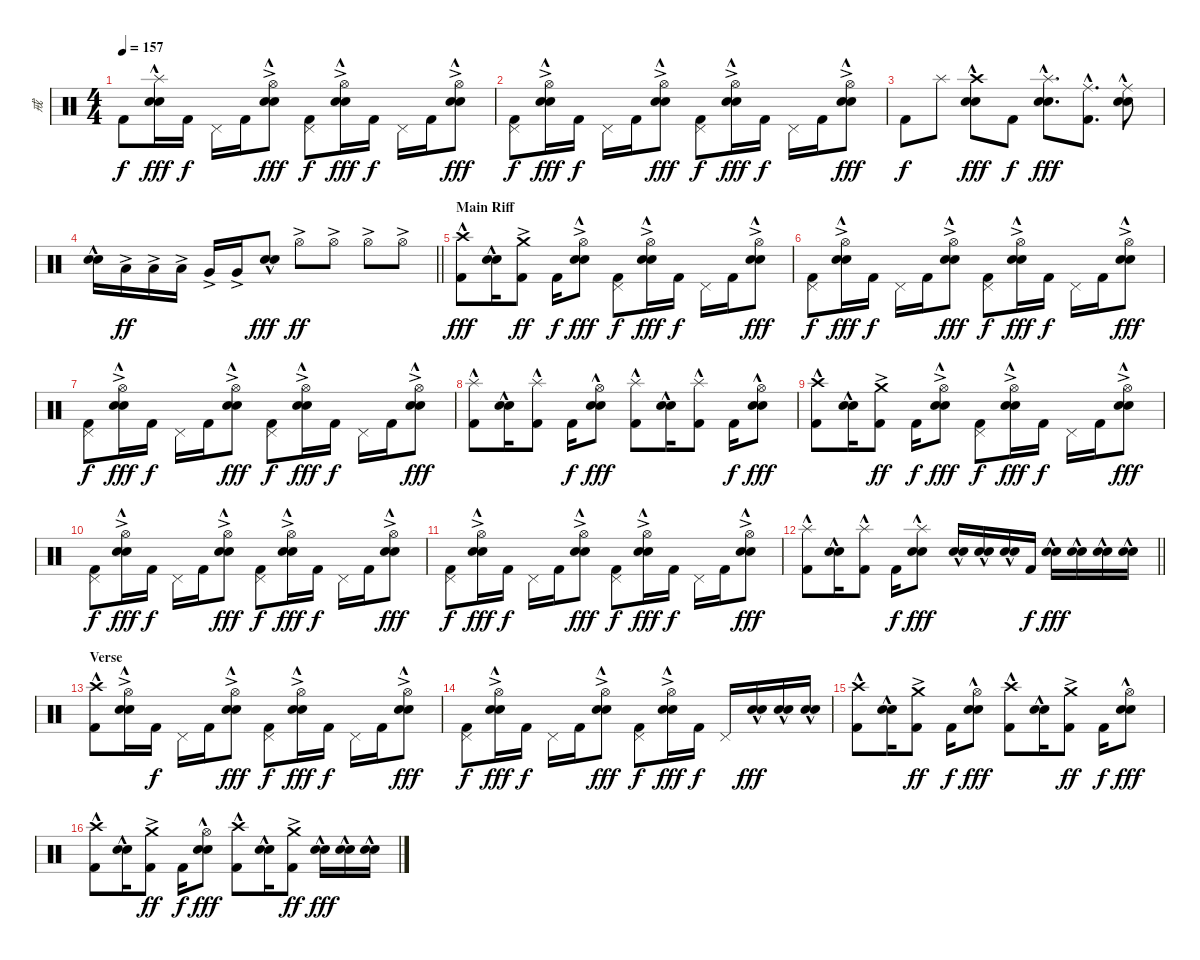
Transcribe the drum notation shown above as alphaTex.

\track ("戒" "戒") {instrument percussion}
\staff {score}
\articulation defaults
\ts (4 4)
\tempo 157
\clef neutral
\ks c "Kick (hit) 2".8{dy f}
("Splash (hit)"{hac} "Electric Snare (hit)"{hac} "Snare (hit) 2").16{dy fff} "Kick (hit) 2".16{dy f} "Pedal Hi-Hat (hit)".16 "Kick (hit) 2".16 ("Hi-Hat (open)"{ac} "Electric Snare (hit)"{hac} "Snare (hit) 2").8{dy fff} ("Pedal Hi-Hat (hit)" "Kick (hit) 2").8{dy f} ("Hi-Hat (open)"{ac} "Electric Snare (hit)"{hac} "Snare (hit) 2").16{dy fff} "Kick (hit) 2".16{dy f} "Pedal Hi-Hat (hit)".16 "Kick (hit) 2".16 ("Hi-Hat (open)"{ac} "Electric Snare (hit)"{hac} "Snare (hit) 2").8{dy fff} |
("Pedal Hi-Hat (hit)" "Kick (hit) 2").8{dy f} ("Hi-Hat (open)"{ac} "Electric Snare (hit)"{hac} "Snare (hit) 2").16{dy fff} "Kick (hit) 2".16{dy f} "Pedal Hi-Hat (hit)".16 "Kick (hit) 2".16 ("Hi-Hat (open)"{ac} "Electric Snare (hit)"{hac} "Snare (hit) 2").8{dy fff} ("Pedal Hi-Hat (hit)" "Kick (hit) 2").8{dy f} ("Hi-Hat (open)"{ac} "Electric Snare (hit)"{hac} "Snare (hit) 2").16{dy fff} "Kick (hit) 2".16{dy f} "Pedal Hi-Hat (hit)".16 "Kick (hit) 2".16 ("Hi-Hat (open)"{ac} "Electric Snare (hit)"{hac} "Snare (hit) 2").8{dy fff} |
"Kick (hit) 2".8{dy f} "Splash (hit)".8 ("Crash high (hit)"{hac} "Electric Snare (hit)"{hac} "Snare (hit) 2").8{dy fff} "Kick (hit) 2".8{dy f} ("Splash (hit)"{hac} "Electric Snare (hit)"{hac} "Snare (hit) 2").8{d dy fff} ("Ride (middle)"{hac} "Kick (hit) 2").8{d} ("Ride (middle)" "Electric Snare (hit)"{hac} "Snare (hit) 2").8 |
\barLineRight lightlight
("Electric Snare (hit)"{hac} "Snare (hit) 2").16 "Low Tom (hit)"{ac}.16{dy ff} "Low Tom (hit)"{ac}.16 "Low Tom (hit)"{ac}.16 "Very Low Tom (hit)"{ac}.16 "Very Low Tom (hit)"{ac}.16 ("Electric Snare (hit)"{hac} "Snare (hit) 2").8{dy fff} "Hi-Hat (open)"{ac}.8{dy ff} "Hi-Hat (open)"{ac}.8 "Hi-Hat (open)"{ac}.8 "Hi-Hat (open)"{ac}.8 |
\section ("" "Main Riff")
("Crash high (hit)"{hac} "Kick (hit) 2").8{dy fff} ("Electric Snare (hit)"{hac} "Snare (hit) 2").16 ("Crash medium (hit)"{ac} "Kick (hit) 2").8{dy ff} "Kick (hit) 2".16{dy f} ("Hi-Hat (open)"{ac} "Electric Snare (hit)"{hac} "Snare (hit) 2").8{dy fff} ("Pedal Hi-Hat (hit)" "Kick (hit) 2").8{dy f} ("Hi-Hat (open)"{ac} "Electric Snare (hit)"{hac} "Snare (hit) 2").16{dy fff} "Kick (hit) 2".16{dy f} "Pedal Hi-Hat (hit)".16 "Kick (hit) 2".16 ("Hi-Hat (open)"{ac} "Electric Snare (hit)"{hac} "Snare (hit) 2").8{dy fff} |
("Pedal Hi-Hat (hit)" "Kick (hit) 2").8{dy f} ("Hi-Hat (open)"{ac} "Electric Snare (hit)"{hac} "Snare (hit) 2").16{dy fff} "Kick (hit) 2".16{dy f} "Pedal Hi-Hat (hit)".16 "Kick (hit) 2".16 ("Hi-Hat (open)"{ac} "Electric Snare (hit)"{hac} "Snare (hit) 2").8{dy fff} ("Pedal Hi-Hat (hit)" "Kick (hit) 2").8{dy f} ("Hi-Hat (open)"{ac} "Electric Snare (hit)"{hac} "Snare (hit) 2").16{dy fff} "Kick (hit) 2".16{dy f} "Pedal Hi-Hat (hit)".16 "Kick (hit) 2".16 ("Hi-Hat (open)"{ac} "Electric Snare (hit)"{hac} "Snare (hit) 2").8{dy fff} |
("Pedal Hi-Hat (hit)" "Kick (hit) 2").8{dy f} ("Hi-Hat (open)"{ac} "Electric Snare (hit)"{hac} "Snare (hit) 2").16{dy fff} "Kick (hit) 2".16{dy f} "Pedal Hi-Hat (hit)".16 "Kick (hit) 2".16 ("Hi-Hat (open)"{ac} "Electric Snare (hit)"{hac} "Snare (hit) 2").8{dy fff} ("Pedal Hi-Hat (hit)" "Kick (hit) 2").8{dy f} ("Hi-Hat (open)"{ac} "Electric Snare (hit)"{hac} "Snare (hit) 2").16{dy fff} "Kick (hit) 2".16{dy f} "Pedal Hi-Hat (hit)".16 "Kick (hit) 2".16 ("Hi-Hat (open)"{ac} "Electric Snare (hit)"{hac} "Snare (hit) 2").8{dy fff} |
("Splash (hit)"{hac} "Kick (hit) 2").8 ("Electric Snare (hit)"{hac} "Snare (hit) 2").16 ("Splash (hit)"{hac} "Kick (hit) 2").8 "Kick (hit) 2".16{dy f} ("Hi-Hat (open)" "Electric Snare (hit)"{hac} "Snare (hit) 2").8{dy fff} ("Splash (hit)"{hac} "Kick (hit) 2").8 ("Electric Snare (hit)"{hac} "Snare (hit) 2").16 ("Splash (hit)"{hac} "Kick (hit) 2").8 "Kick (hit) 2".16{dy f} ("Hi-Hat (open)" "Electric Snare (hit)"{hac} "Snare (hit) 2").8{dy fff} |
("Crash high (hit)"{hac} "Kick (hit) 2").8 ("Electric Snare (hit)"{hac} "Snare (hit) 2").16 ("Crash medium (hit)"{ac} "Kick (hit) 2").8{dy ff} "Kick (hit) 2".16{dy f} ("Hi-Hat (open)"{ac} "Electric Snare (hit)"{hac} "Snare (hit) 2").8{dy fff} ("Pedal Hi-Hat (hit)" "Kick (hit) 2").8{dy f} ("Hi-Hat (open)"{ac} "Electric Snare (hit)"{hac} "Snare (hit) 2").16{dy fff} "Kick (hit) 2".16{dy f} "Pedal Hi-Hat (hit)".16 "Kick (hit) 2".16 ("Hi-Hat (open)"{ac} "Electric Snare (hit)"{hac} "Snare (hit) 2").8{dy fff} |
("Pedal Hi-Hat (hit)" "Kick (hit) 2").8{dy f} ("Hi-Hat (open)"{ac} "Electric Snare (hit)"{hac} "Snare (hit) 2").16{dy fff} "Kick (hit) 2".16{dy f} "Pedal Hi-Hat (hit)".16 "Kick (hit) 2".16 ("Hi-Hat (open)"{ac} "Electric Snare (hit)"{hac} "Snare (hit) 2").8{dy fff} ("Pedal Hi-Hat (hit)" "Kick (hit) 2").8{dy f} ("Hi-Hat (open)"{ac} "Electric Snare (hit)"{hac} "Snare (hit) 2").16{dy fff} "Kick (hit) 2".16{dy f} "Pedal Hi-Hat (hit)".16 "Kick (hit) 2".16 ("Hi-Hat (open)"{ac} "Electric Snare (hit)"{hac} "Snare (hit) 2").8{dy fff} |
("Pedal Hi-Hat (hit)" "Kick (hit) 2").8{dy f} ("Hi-Hat (open)"{ac} "Electric Snare (hit)"{hac} "Snare (hit) 2").16{dy fff} "Kick (hit) 2".16{dy f} "Pedal Hi-Hat (hit)".16 "Kick (hit) 2".16 ("Hi-Hat (open)"{ac} "Electric Snare (hit)"{hac} "Snare (hit) 2").8{dy fff} ("Pedal Hi-Hat (hit)" "Kick (hit) 2").8{dy f} ("Hi-Hat (open)"{ac} "Electric Snare (hit)"{hac} "Snare (hit) 2").16{dy fff} "Kick (hit) 2".16{dy f} "Pedal Hi-Hat (hit)".16 "Kick (hit) 2".16 ("Hi-Hat (open)"{ac} "Electric Snare (hit)"{hac} "Snare (hit) 2").8{dy fff} |
\barLineRight lightlight
("Splash (hit)"{hac} "Kick (hit) 2").8 ("Electric Snare (hit)"{hac} "Snare (hit) 2").16 ("Splash (hit)"{hac} "Kick (hit) 2").8 "Kick (hit) 2".16{dy f} ("Splash (hit)"{hac} "Electric Snare (hit)"{hac} "Snare (hit) 2").8{dy fff} ("Electric Snare (hit)"{hac} "Snare (hit) 2").16 ("Electric Snare (hit)"{hac} "Snare (hit) 2").16 ("Electric Snare (hit)"{hac} "Snare (hit) 2").16 "Kick (hit) 2".16{dy f} ("Electric Snare (hit)"{hac} "Snare (hit) 2").16{dy fff} ("Electric Snare (hit)"{hac} "Snare (hit) 2").16 ("Electric Snare (hit)"{hac} "Snare (hit) 2").16 ("Electric Snare (hit)"{hac} "Snare (hit) 2").16 |
\section ("" "Verse")
("Crash high (hit)"{hac} "Kick (hit) 2").8 ("Hi-Hat (open)"{ac} "Electric Snare (hit)"{hac} "Snare (hit) 2").16 "Kick (hit) 2".16{dy f} "Pedal Hi-Hat (hit)".16 "Kick (hit) 2".16 ("Hi-Hat (open)"{ac} "Electric Snare (hit)"{hac} "Snare (hit) 2").8{dy fff} ("Pedal Hi-Hat (hit)" "Kick (hit) 2").8{dy f} ("Hi-Hat (open)"{ac} "Electric Snare (hit)"{hac} "Snare (hit) 2").16{dy fff} "Kick (hit) 2".16{dy f} "Pedal Hi-Hat (hit)".16 "Kick (hit) 2".16 ("Hi-Hat (open)"{ac} "Electric Snare (hit)"{hac} "Snare (hit) 2").8{dy fff} |
("Pedal Hi-Hat (hit)" "Kick (hit) 2").8{dy f} ("Hi-Hat (open)"{ac} "Electric Snare (hit)"{hac} "Snare (hit) 2").16{dy fff} "Kick (hit) 2".16{dy f} "Pedal Hi-Hat (hit)".16 "Kick (hit) 2".16 ("Hi-Hat (open)"{ac} "Electric Snare (hit)"{hac} "Snare (hit) 2").8{dy fff} ("Pedal Hi-Hat (hit)" "Kick (hit) 2").8{dy f} ("Hi-Hat (open)"{ac} "Electric Snare (hit)"{hac} "Snare (hit) 2").16{dy fff} "Kick (hit) 2".16{dy f} "Pedal Hi-Hat (hit)".16 ("Electric Snare (hit)"{hac} "Snare (hit) 2").16{dy fff} ("Electric Snare (hit)"{hac} "Snare (hit) 2").16 ("Electric Snare (hit)"{hac} "Snare (hit) 2").16 |
("Crash high (hit)"{hac} "Kick (hit) 2").8 ("Electric Snare (hit)"{hac} "Snare (hit) 2").16 ("Crash medium (hit)"{ac} "Kick (hit) 2").8{dy ff} "Kick (hit) 2".16{dy f} ("Hi-Hat (open)" "Electric Snare (hit)"{hac} "Snare (hit) 2").8{dy fff} ("Crash high (hit)"{hac} "Kick (hit) 2").8 ("Electric Snare (hit)"{hac} "Snare (hit) 2").16 ("Crash medium (hit)"{ac} "Kick (hit) 2").8{dy ff} "Kick (hit) 2".16{dy f} ("Hi-Hat (open)" "Electric Snare (hit)"{hac} "Snare (hit) 2").8{dy fff} |
("Crash high (hit)"{hac} "Kick (hit) 2").8 ("Electric Snare (hit)"{hac} "Snare (hit) 2").16 ("Crash medium (hit)"{ac} "Kick (hit) 2").8{dy ff} "Kick (hit) 2".16{dy f} ("Hi-Hat (open)" "Electric Snare (hit)"{hac} "Snare (hit) 2").8{dy fff} ("Crash high (hit)"{hac} "Kick (hit) 2").8 ("Electric Snare (hit)"{hac} "Snare (hit) 2").16 ("Crash medium (hit)"{ac} "Kick (hit) 2").8{dy ff} ("Electric Snare (hit)"{hac} "Snare (hit) 2").16{dy fff} ("Electric Snare (hit)"{hac} "Snare (hit) 2").16 ("Electric Snare (hit)"{hac} "Snare (hit) 2").16
